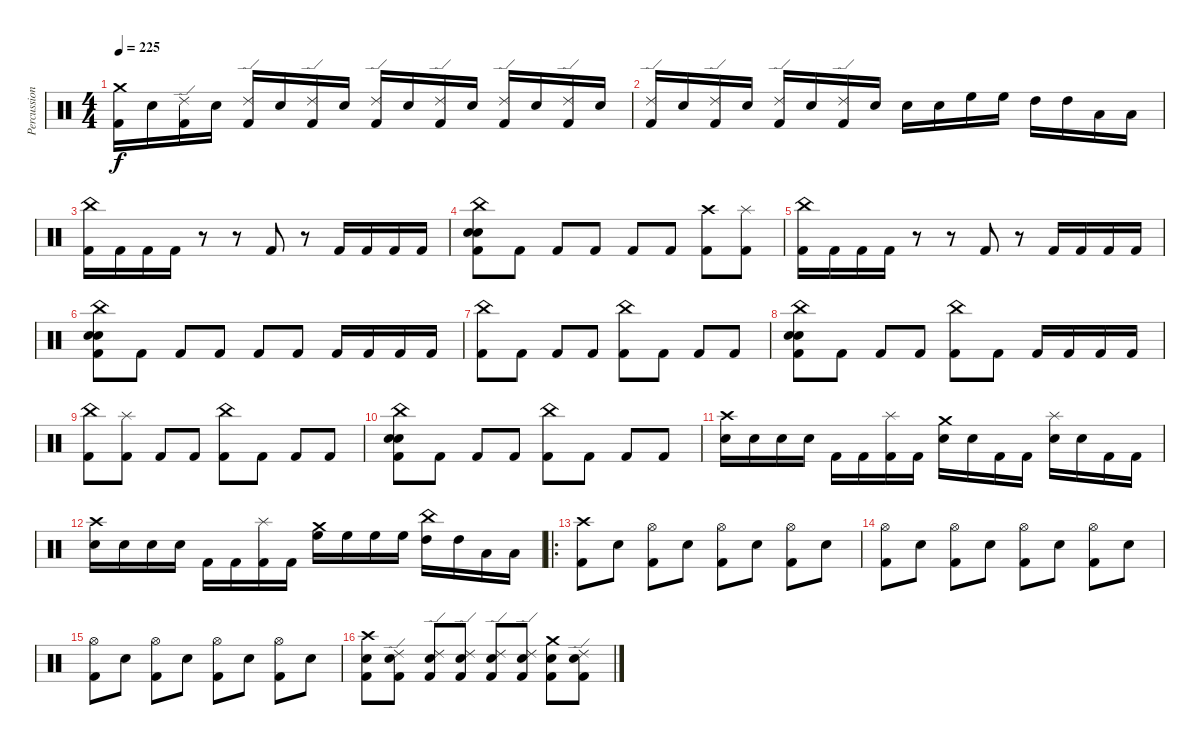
\track ("Percussion" "Percussion") {instrument percussion}
\staff {score}
\articulation defaults
\ts (4 4)
\tempo 225
\clef neutral
\ks c
("Crash medium (hit)" "Kick (hit) 2").16{dy f} "Electric Snare (hit)".16 ("Ride (edge) 2" "Kick (hit) 2").16 "Electric Snare (hit)".16 ("Ride (edge) 2" "Kick (hit) 2").16 "Electric Snare (hit)".16 ("Ride (edge) 2" "Kick (hit) 2").16 "Electric Snare (hit)".16 ("Ride (edge) 2" "Kick (hit) 2").16 "Electric Snare (hit)".16 ("Ride (edge) 2" "Kick (hit) 2").16 "Electric Snare (hit)".16 ("Ride (edge) 2" "Kick (hit) 2").16 "Electric Snare (hit)".16 ("Ride (edge) 2" "Kick (hit) 2").16 "Electric Snare (hit)".16 |
("Ride (edge) 2" "Kick (hit) 2").16 "Electric Snare (hit)".16 ("Ride (edge) 2" "Kick (hit) 2").16 "Electric Snare (hit)".16 ("Ride (edge) 2" "Kick (hit) 2").16 "Electric Snare (hit)".16 ("Ride (edge) 2" "Kick (hit) 2").16 "Electric Snare (hit)".16 "Electric Snare (hit)".16 "Electric Snare (hit)".16 "High Floor Tom (hit)".16 "High Floor Tom (hit)".16 "High Tom (hit)".16 "High Tom (hit)".16 "Low Tom (hit)".16 "Low Floor Tom (hit)".16 |
("China (hit)" "Kick (hit) 2").16 "Kick (hit) 2".16 "Kick (hit) 2".16 "Kick (hit) 2".16 r.8 r.8 "Kick (hit) 2".8 r.8 "Kick (hit) 2".16 "Kick (hit) 2".16 "Kick (hit) 2".16 "Kick (hit) 2".16 |
("China (hit)" "Kick (hit) 2" "Electric Snare (hit)" "Electric Snare (hit)").8 "Kick (hit) 2".8 "Kick (hit) 2".8 "Kick (hit) 2".8 "Kick (hit) 2".8 "Kick (hit) 2".8 ("Crash high (hit)" "Kick (hit) 2").8 ("Splash (hit)" "Kick (hit) 2").8 |
("China (hit)" "Kick (hit) 2").16 "Kick (hit) 2".16 "Kick (hit) 2".16 "Kick (hit) 2".16 r.8 r.8 "Kick (hit) 2".8 r.8 "Kick (hit) 2".16 "Kick (hit) 2".16 "Kick (hit) 2".16 "Kick (hit) 2".16 |
("China (hit)" "Kick (hit) 2" "Electric Snare (hit)" "Electric Snare (hit)").8 "Kick (hit) 2".8 "Kick (hit) 2".8 "Kick (hit) 2".8 "Kick (hit) 2".8 "Kick (hit) 2".8 "Kick (hit) 2".16 "Kick (hit) 2".16 "Kick (hit) 2".16 "Kick (hit) 2".16 |
("China (hit)" "Kick (hit) 2").8 "Kick (hit) 2".8 "Kick (hit) 2".8 "Kick (hit) 2".8 ("China (hit)" "Kick (hit) 2").8 "Kick (hit) 2".8 "Kick (hit) 2".8 "Kick (hit) 2".8 |
("China (hit)" "Kick (hit) 2" "Electric Snare (hit)" "Electric Snare (hit)").8 "Kick (hit) 2".8 "Kick (hit) 2".8 "Kick (hit) 2".8 ("China (hit)" "Kick (hit) 2").8 "Kick (hit) 2".8 "Kick (hit) 2".16 "Kick (hit) 2".16 "Kick (hit) 2".16 "Kick (hit) 2".16 |
("China (hit)" "Kick (hit) 2").8 ("Splash (hit)" "Kick (hit) 2").8 "Kick (hit) 2".8 "Kick (hit) 2".8 ("China (hit)" "Kick (hit) 2").8 "Kick (hit) 2".8 "Kick (hit) 2".8 "Kick (hit) 2".8 |
("China (hit)" "Kick (hit) 2" "Electric Snare (hit)" "Electric Snare (hit)").8 "Kick (hit) 2".8 "Kick (hit) 2".8 "Kick (hit) 2".8 ("China (hit)" "Kick (hit) 2").8 "Kick (hit) 2".8 "Kick (hit) 2".8 "Kick (hit) 2".8 |
("Crash high (hit)" "Electric Snare (hit)").16 "Electric Snare (hit)".16 "Electric Snare (hit)".16 "Electric Snare (hit)".16 "Kick (hit) 2".16 "Kick (hit) 2".16 ("Splash (hit)" "Kick (hit) 2").16 "Kick (hit) 2".16 ("Crash medium (hit)" "Electric Snare (hit)").16 "Electric Snare (hit)".16 "Kick (hit) 2".16 "Kick (hit) 2".16 ("Splash (hit)" "Electric Snare (hit)").16 "Electric Snare (hit)".16 "Kick (hit) 2".16 "Kick (hit) 2".16 |
("Crash high (hit)" "Electric Snare (hit)").16 "Electric Snare (hit)".16 "Electric Snare (hit)".16 "Electric Snare (hit)".16 "Kick (hit) 2".16 "Kick (hit) 2".16 ("Splash (hit)" "Kick (hit) 2").16 "Kick (hit) 2".16 ("Crash medium (hit)" "High Floor Tom (hit)").16 "High Floor Tom (hit)".16 "High Floor Tom (hit)".16 "High Floor Tom (hit)".16 ("China (hit)" "High Tom (hit)").16 "High Tom (hit)".16 "Low Tom (hit)".16 "Low Tom (hit)".16 |
\ro
("Crash high (hit)" "Kick (hit) 2").8 "Electric Snare (hit)".8 ("Hi-Hat (open)" "Kick (hit) 2").8 "Electric Snare (hit)".8 ("Hi-Hat (open)" "Kick (hit) 2").8 "Electric Snare (hit)".8 ("Hi-Hat (open)" "Kick (hit) 2").8 "Electric Snare (hit)".8 |
("Hi-Hat (open)" "Kick (hit) 2").8 "Electric Snare (hit)".8 ("Hi-Hat (open)" "Kick (hit) 2").8 "Electric Snare (hit)".8 ("Hi-Hat (open)" "Kick (hit) 2").8 "Electric Snare (hit)".8 ("Hi-Hat (open)" "Kick (hit) 2").8 "Electric Snare (hit)".8 |
("Hi-Hat (open)" "Kick (hit) 2").8 "Electric Snare (hit)".8 ("Hi-Hat (open)" "Kick (hit) 2").8 "Electric Snare (hit)".8 ("Hi-Hat (open)" "Kick (hit) 2").8 "Electric Snare (hit)".8 ("Hi-Hat (open)" "Kick (hit) 2").8 "Electric Snare (hit)".8 |
("Crash high (hit)" "Kick (hit) 2" "Electric Snare (hit)").8 ("Ride (edge) 2" "Kick (hit) 2" "Electric Snare (hit)").8 ("Ride (edge) 2" "Kick (hit) 2" "Electric Snare (hit)").8 ("Ride (edge) 2" "Kick (hit) 2" "Electric Snare (hit)").8 ("Ride (edge) 2" "Kick (hit) 2" "Electric Snare (hit)").8 ("Ride (edge) 2" "Kick (hit) 2" "Electric Snare (hit)").8 ("Crash medium (hit)" "Kick (hit) 2" "Electric Snare (hit)").8 ("Ride (edge) 2" "Kick (hit) 2" "Electric Snare (hit)").8
